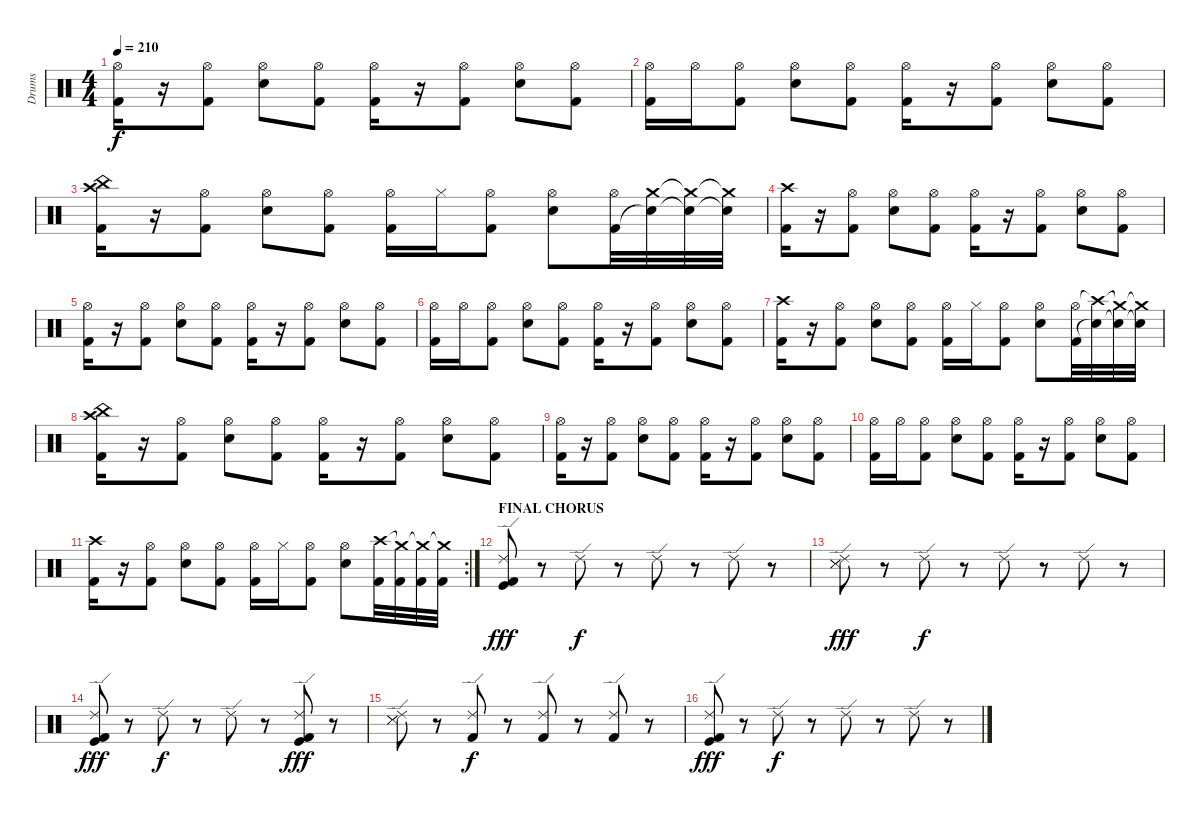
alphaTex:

\track ("Drums" "Drums") {instrument percussion}
\staff {score}
\articulation defaults
\ts (4 4)
\tempo 210
\clef neutral
\ks c
("Hi-Hat (open)" "Kick (hit) 2").16{dy f} r.16 ("Hi-Hat (open)" "Kick (hit) 2").8 ("Hi-Hat (open)" "Electric Snare (hit)").8 ("Hi-Hat (open)" "Kick (hit) 2").8 ("Hi-Hat (open)" "Kick (hit) 2").16 r.16 ("Hi-Hat (open)" "Kick (hit) 2").8 ("Hi-Hat (open)" "Electric Snare (hit)").8 ("Hi-Hat (open)" "Kick (hit) 2").8 |
("Hi-Hat (open)" "Kick (hit) 2").16 "Hi-Hat (open)".16 ("Hi-Hat (open)" "Kick (hit) 2").8 ("Hi-Hat (open)" "Electric Snare (hit)").8 ("Hi-Hat (open)" "Kick (hit) 2").8 ("Hi-Hat (open)" "Kick (hit) 2").16 r.16 ("Hi-Hat (open)" "Kick (hit) 2").8 ("Hi-Hat (open)" "Electric Snare (hit)").8 ("Hi-Hat (open)" "Kick (hit) 2").8 |
("Crash high (hit)" "China (hit)" "Kick (hit) 2").16 r.16 ("Hi-Hat (open)" "Kick (hit) 2").8 ("Hi-Hat (open)" "Electric Snare (hit)").8 ("Hi-Hat (open)" "Kick (hit) 2").8 ("Hi-Hat (open)" "Kick (hit) 2").16 "Hi-Hat (closed)".16 ("Hi-Hat (open)" "Kick (hit) 2").8 ("Hi-Hat (open)" "Electric Snare (hit)").8 ("Hi-Hat (open)" "Kick (hit) 2").32 ("Crash medium (hit)" "Electric Snare (hit)"{t}).32 ("Crash medium (hit)"{t} "Electric Snare (hit)"{t}).32 ("Crash medium (hit)"{t} "Electric Snare (hit)"{t}).32 |
("Crash high (hit)" "Kick (hit) 2").16 r.16 ("Hi-Hat (open)" "Kick (hit) 2").8 ("Hi-Hat (open)" "Electric Snare (hit)").8 ("Hi-Hat (open)" "Kick (hit) 2").8 ("Hi-Hat (open)" "Kick (hit) 2").16 r.16 ("Hi-Hat (open)" "Kick (hit) 2").8 ("Hi-Hat (open)" "Electric Snare (hit)").8 ("Hi-Hat (open)" "Kick (hit) 2").8 |
("Hi-Hat (open)" "Kick (hit) 2").16 r.16 ("Hi-Hat (open)" "Kick (hit) 2").8 ("Hi-Hat (open)" "Electric Snare (hit)").8 ("Hi-Hat (open)" "Kick (hit) 2").8 ("Hi-Hat (open)" "Kick (hit) 2").16 r.16 ("Hi-Hat (open)" "Kick (hit) 2").8 ("Hi-Hat (open)" "Electric Snare (hit)").8 ("Hi-Hat (open)" "Kick (hit) 2").8 |
("Hi-Hat (open)" "Kick (hit) 2").16 "Hi-Hat (open)".16 ("Hi-Hat (open)" "Kick (hit) 2").8 ("Hi-Hat (open)" "Electric Snare (hit)").8 ("Hi-Hat (open)" "Kick (hit) 2").8 ("Hi-Hat (open)" "Kick (hit) 2").16 r.16 ("Hi-Hat (open)" "Kick (hit) 2").8 ("Hi-Hat (open)" "Electric Snare (hit)").8 ("Hi-Hat (open)" "Kick (hit) 2").8 |
("Crash high (hit)" "Kick (hit) 2").16 r.16 ("Hi-Hat (open)" "Kick (hit) 2").8 ("Hi-Hat (open)" "Electric Snare (hit)").8 ("Hi-Hat (open)" "Kick (hit) 2").8 ("Hi-Hat (open)" "Kick (hit) 2").16 "Hi-Hat (closed)".16 ("Hi-Hat (open)" "Kick (hit) 2").8 ("Hi-Hat (open)" "Electric Snare (hit)").8 ("Hi-Hat (open)" "Kick (hit) 2").32 ("Crash high (hit)"{t} "Electric Snare (hit)"{t}).32 ("Crash medium (hit)"{t} "Electric Snare (hit)"{t}).32 ("Crash medium (hit)"{t} "Electric Snare (hit)"{t}).32 |
("Crash high (hit)" "China (hit)" "Kick (hit) 2").16 r.16 ("Hi-Hat (open)" "Kick (hit) 2").8 ("Hi-Hat (open)" "Electric Snare (hit)").8 ("Hi-Hat (open)" "Kick (hit) 2").8 ("Hi-Hat (open)" "Kick (hit) 2").16 r.16 ("Hi-Hat (open)" "Kick (hit) 2").8 ("Hi-Hat (open)" "Electric Snare (hit)").8 ("Hi-Hat (open)" "Kick (hit) 2").8 |
("Hi-Hat (open)" "Kick (hit) 2").16 r.16 ("Hi-Hat (open)" "Kick (hit) 2").8 ("Hi-Hat (open)" "Electric Snare (hit)").8 ("Hi-Hat (open)" "Kick (hit) 2").8 ("Hi-Hat (open)" "Kick (hit) 2").16 r.16 ("Hi-Hat (open)" "Kick (hit) 2").8 ("Hi-Hat (open)" "Electric Snare (hit)").8 ("Hi-Hat (open)" "Kick (hit) 2").8 |
("Hi-Hat (open)" "Kick (hit) 2").16 "Hi-Hat (open)".16 ("Hi-Hat (open)" "Kick (hit) 2").8 ("Hi-Hat (open)" "Electric Snare (hit)").8 ("Hi-Hat (open)" "Kick (hit) 2").8 ("Hi-Hat (open)" "Kick (hit) 2").16 r.16 ("Hi-Hat (open)" "Kick (hit) 2").8 ("Hi-Hat (open)" "Electric Snare (hit)").8 ("Hi-Hat (open)" "Kick (hit) 2").8 |
\rc 2
("Crash high (hit)" "Kick (hit) 2").16 r.16 ("Hi-Hat (open)" "Kick (hit) 2").8 ("Hi-Hat (open)" "Electric Snare (hit)").8 ("Hi-Hat (open)" "Kick (hit) 2").8 ("Hi-Hat (open)" "Kick (hit) 2").16 "Hi-Hat (closed)".16 ("Hi-Hat (open)" "Kick (hit) 2").8 ("Hi-Hat (open)" "Electric Snare (hit)").8 ("Crash high (hit)" "Kick (hit) 2").32 ("Crash medium (hit)"{t} "Kick (hit) 2").32 ("Crash medium (hit)"{t} "Kick (hit) 2").32 ("Crash medium (hit)"{t} "Kick (hit) 2").32 |
\section ("" "FINAL CHORUS")
("Ride (edge) 2" "Kick (hit)" "Kick (hit) 2").8{dy fff} r.8 "Ride (edge) 2".8{dy f} r.8 "Ride (edge) 2".8 r.8 "Ride (edge) 2".8 r.8 |
("Ride (edge) 2" "Snare (side stick) 3" "Snare (side stick) 3").8{dy fff} r.8 "Ride (edge) 2".8{dy f} r.8 "Ride (edge) 2".8 r.8 "Ride (edge) 2".8 r.8 |
("Ride (edge) 2" "Kick (hit)" "Kick (hit) 2").8{dy fff} r.8 "Ride (edge) 2".8{dy f} r.8 "Ride (edge) 2".8 r.8 ("Ride (edge) 2" "Kick (hit)" "Kick (hit) 2").8{dy fff} r.8 |
("Ride (edge) 2" "Snare (side stick) 3" "Snare (side stick) 3").8 r.8 ("Ride (edge) 2" "Kick (hit) 2").8{dy f} r.8 ("Ride (edge) 2" "Kick (hit) 2").8 r.8 ("Ride (edge) 2" "Kick (hit) 2").8 r.8 |
("Ride (edge) 2" "Kick (hit)" "Kick (hit) 2").8{dy fff} r.8 "Ride (edge) 2".8{dy f} r.8 "Ride (edge) 2".8 r.8 "Ride (edge) 2".8 r.8
